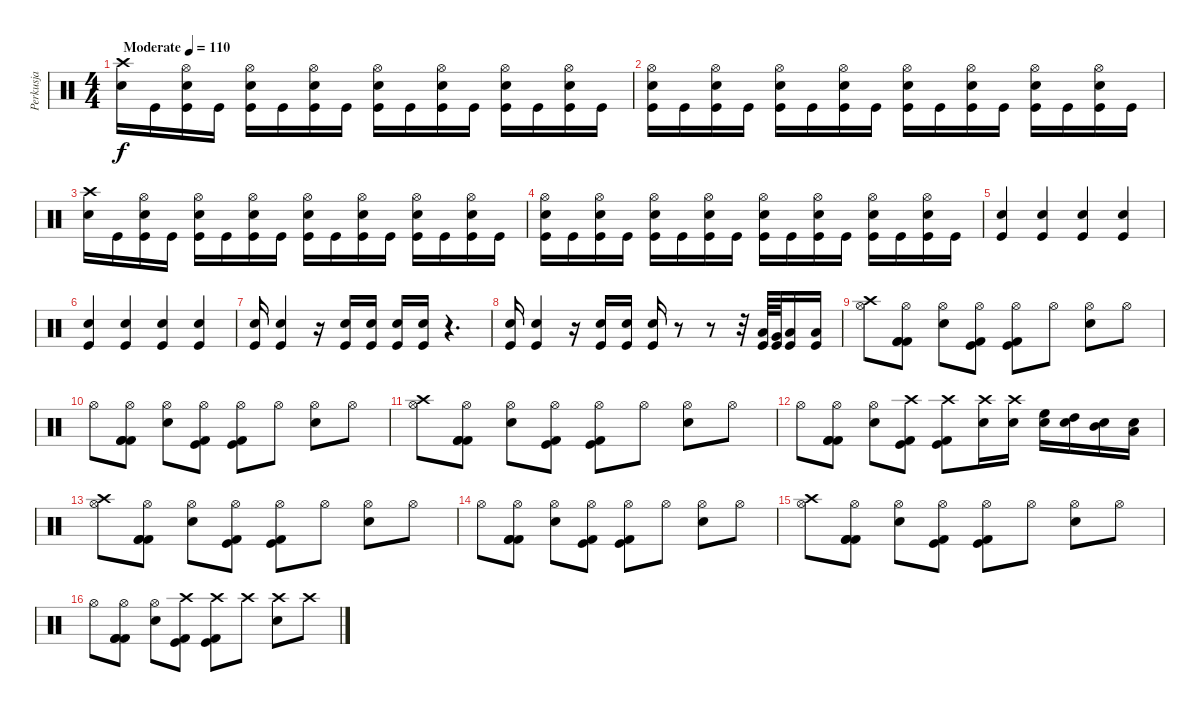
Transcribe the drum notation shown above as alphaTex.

\track ("Perkusja" "Perkusja") {instrument percussion}
\staff {score}
\articulation defaults
\ts (4 4)
\tempo (110 "Moderate")
\clef neutral
\ks c
("Snare (hit) 2" "Crash high (hit)").16{dy f} "Kick (hit)".16 ("Snare (hit) 2" "Hi-Hat (open)" "Kick (hit)").16 "Kick (hit)".16 ("Snare (hit) 2" "Hi-Hat (open)" "Kick (hit)").16 "Kick (hit)".16 ("Snare (hit) 2" "Hi-Hat (open)" "Kick (hit)").16 "Kick (hit)".16 ("Snare (hit) 2" "Hi-Hat (open)" "Kick (hit)").16 "Kick (hit)".16 ("Snare (hit) 2" "Hi-Hat (open)" "Kick (hit)").16 "Kick (hit)".16 ("Snare (hit) 2" "Hi-Hat (open)" "Kick (hit)").16 "Kick (hit)".16 ("Snare (hit) 2" "Hi-Hat (open)" "Kick (hit)").16 "Kick (hit)".16 |
("Snare (hit) 2" "Hi-Hat (open)" "Kick (hit)").16 "Kick (hit)".16 ("Snare (hit) 2" "Hi-Hat (open)" "Kick (hit)").16 "Kick (hit)".16 ("Snare (hit) 2" "Hi-Hat (open)" "Kick (hit)").16 "Kick (hit)".16 ("Snare (hit) 2" "Hi-Hat (open)" "Kick (hit)").16 "Kick (hit)".16 ("Snare (hit) 2" "Hi-Hat (open)" "Kick (hit)").16 "Kick (hit)".16 ("Snare (hit) 2" "Hi-Hat (open)" "Kick (hit)").16 "Kick (hit)".16 ("Snare (hit) 2" "Hi-Hat (open)" "Kick (hit)").16 "Kick (hit)".16 ("Snare (hit) 2" "Hi-Hat (open)" "Kick (hit)").16 "Kick (hit)".16 |
("Snare (hit) 2" "Crash high (hit)").16 "Kick (hit)".16 ("Snare (hit) 2" "Hi-Hat (open)" "Kick (hit)").16 "Kick (hit)".16 ("Snare (hit) 2" "Hi-Hat (open)" "Kick (hit)").16 "Kick (hit)".16 ("Snare (hit) 2" "Hi-Hat (open)" "Kick (hit)").16 "Kick (hit)".16 ("Snare (hit) 2" "Hi-Hat (open)" "Kick (hit)").16 "Kick (hit)".16 ("Snare (hit) 2" "Hi-Hat (open)" "Kick (hit)").16 "Kick (hit)".16 ("Snare (hit) 2" "Hi-Hat (open)" "Kick (hit)").16 "Kick (hit)".16 ("Snare (hit) 2" "Hi-Hat (open)" "Kick (hit)").16 "Kick (hit)".16 |
("Snare (hit) 2" "Hi-Hat (open)" "Kick (hit)").16 "Kick (hit)".16 ("Snare (hit) 2" "Hi-Hat (open)" "Kick (hit)").16 "Kick (hit)".16 ("Snare (hit) 2" "Hi-Hat (open)" "Kick (hit)").16 "Kick (hit)".16 ("Snare (hit) 2" "Hi-Hat (open)" "Kick (hit)").16 "Kick (hit)".16 ("Snare (hit) 2" "Hi-Hat (open)" "Kick (hit)").16 "Kick (hit)".16 ("Snare (hit) 2" "Hi-Hat (open)" "Kick (hit)").16 "Kick (hit)".16 ("Snare (hit) 2" "Hi-Hat (open)" "Kick (hit)").16 "Kick (hit)".16 ("Snare (hit) 2" "Hi-Hat (open)" "Kick (hit)").16 "Kick (hit)".16 |
("Snare (hit) 2" "Kick (hit)").4 ("Snare (hit) 2" "Kick (hit)").4 ("Snare (hit) 2" "Kick (hit)").4 ("Snare (hit) 2" "Kick (hit)").4 |
("Snare (hit) 2" "Kick (hit)").4 ("Snare (hit) 2" "Kick (hit)").4 ("Snare (hit) 2" "Kick (hit)").4 ("Snare (hit) 2" "Kick (hit)").4 |
("Snare (hit) 2" "Kick (hit)").16 ("Snare (hit) 2" "Kick (hit)").4 r.16 ("Snare (hit) 2" "Kick (hit)").16 ("Snare (hit) 2" "Kick (hit)").16 ("Snare (hit) 2" "Kick (hit)").16 ("Snare (hit) 2" "Kick (hit)").16 r.4{d} |
("Snare (hit) 2" "Kick (hit)").16 ("Snare (hit) 2" "Kick (hit)").4 r.16 ("Snare (hit) 2" "Kick (hit)").16 ("Snare (hit) 2" "Kick (hit)").16 ("Snare (hit) 2" "Kick (hit)").16 r.8 r.8 r.32 ("Kick (hit)" "Low Tom (hit)").64 ("Kick (hit)" "Very Low Tom (hit)").64 ("Kick (hit)" "Low Floor Tom (hit)").16 ("Kick (hit)" "Low Floor Tom (hit)").16 |
("Hi-Hat (open)" "Crash high (hit)").8 ("Hi-Hat (open)" "Kick (hit) 2" "Kick (hit) 2" "Kick (hit) 2").8 ("Hi-Hat (open)" "Electric Snare (hit)").8 ("Hi-Hat (open)" "Kick (hit) 2" "Kick (hit)").8 ("Hi-Hat (open)" "Kick (hit) 2" "Kick (hit)").8 "Hi-Hat (open)".8 ("Hi-Hat (open)" "Electric Snare (hit)").8 "Hi-Hat (open)".8 |
"Hi-Hat (open)".8 ("Hi-Hat (open)" "Kick (hit) 2" "Kick (hit) 2" "Kick (hit) 2").8 ("Hi-Hat (open)" "Electric Snare (hit)").8 ("Hi-Hat (open)" "Kick (hit)" "Kick (hit) 2").8 ("Hi-Hat (open)" "Kick (hit)" "Kick (hit) 2").8 "Hi-Hat (open)".8 ("Hi-Hat (open)" "Electric Snare (hit)").8 "Hi-Hat (open)".8 |
("Hi-Hat (open)" "Crash high (hit)").8 ("Hi-Hat (open)" "Kick (hit) 2" "Kick (hit) 2" "Kick (hit) 2").8 ("Hi-Hat (open)" "Electric Snare (hit)").8 ("Hi-Hat (open)" "Kick (hit) 2" "Kick (hit)").8 ("Hi-Hat (open)" "Kick (hit) 2" "Kick (hit)").8 "Hi-Hat (open)".8 ("Hi-Hat (open)" "Electric Snare (hit)").8 "Hi-Hat (open)".8 |
"Hi-Hat (open)".8 ("Hi-Hat (open)" "Kick (hit) 2" "Kick (hit) 2" "Kick (hit) 2").8 ("Hi-Hat (open)" "Electric Snare (hit)").8 ("Crash high (hit)" "Kick (hit)" "Kick (hit) 2").8 ("Crash high (hit)" "Kick (hit)" "Kick (hit) 2").8 ("Crash high (hit)" "Snare (hit) 2").16 ("Snare (hit) 2" "Crash high (hit)").16 ("Snare (hit) 2" "High Floor Tom (hit)").16 ("Snare (hit) 2" "High Tom (hit)").16 ("Snare (hit) 2" "Mid Tom (hit)").16 ("Snare (hit) 2" "Low Tom (hit)").16 |
("Hi-Hat (open)" "Crash high (hit)").8 ("Hi-Hat (open)" "Kick (hit) 2" "Kick (hit) 2" "Kick (hit) 2").8 ("Hi-Hat (open)" "Electric Snare (hit)").8 ("Hi-Hat (open)" "Kick (hit) 2" "Kick (hit)").8 ("Hi-Hat (open)" "Kick (hit) 2" "Kick (hit)").8 "Hi-Hat (open)".8 ("Hi-Hat (open)" "Electric Snare (hit)").8 "Hi-Hat (open)".8 |
"Hi-Hat (open)".8 ("Hi-Hat (open)" "Kick (hit) 2" "Kick (hit) 2" "Kick (hit) 2").8 ("Hi-Hat (open)" "Electric Snare (hit)").8 ("Hi-Hat (open)" "Kick (hit)" "Kick (hit) 2").8 ("Hi-Hat (open)" "Kick (hit)" "Kick (hit) 2").8 "Hi-Hat (open)".8 ("Hi-Hat (open)" "Electric Snare (hit)").8 "Hi-Hat (open)".8 |
("Hi-Hat (open)" "Crash high (hit)").8 ("Hi-Hat (open)" "Kick (hit) 2" "Kick (hit) 2" "Kick (hit) 2").8 ("Hi-Hat (open)" "Electric Snare (hit)").8 ("Hi-Hat (open)" "Kick (hit) 2" "Kick (hit)").8 ("Hi-Hat (open)" "Kick (hit) 2" "Kick (hit)").8 "Hi-Hat (open)".8 ("Hi-Hat (open)" "Electric Snare (hit)").8 "Hi-Hat (open)".8 |
"Hi-Hat (open)".8 ("Hi-Hat (open)" "Kick (hit) 2" "Kick (hit) 2" "Kick (hit) 2").8 ("Hi-Hat (open)" "Electric Snare (hit)").8 ("Crash high (hit)" "Kick (hit)" "Kick (hit) 2").8 ("Crash high (hit)" "Kick (hit)" "Kick (hit) 2").8 "Crash high (hit)".8 ("Crash high (hit)" "Electric Snare (hit)").8 "Crash high (hit)".8
